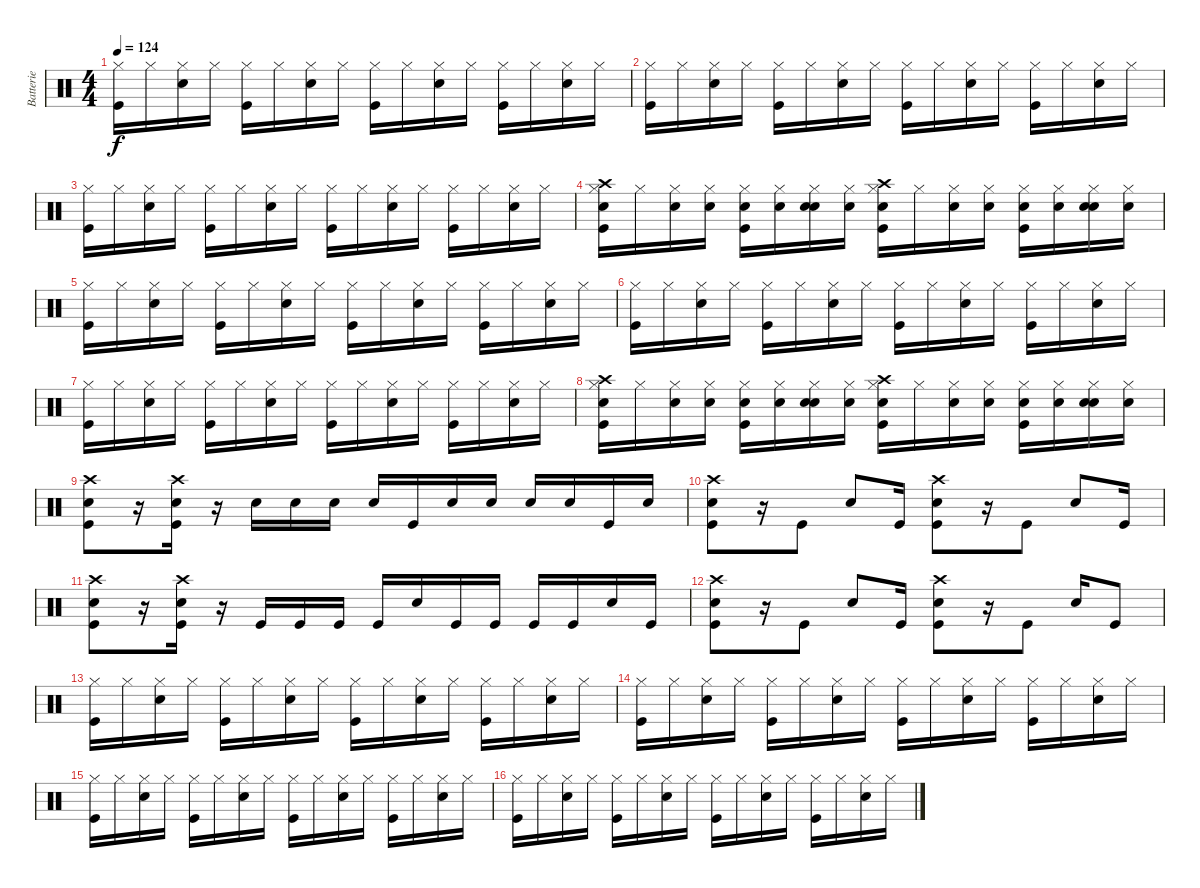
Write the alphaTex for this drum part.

\track ("Batterie" "Batterie") {instrument percussion}
\staff {score}
\articulation defaults
\ts (4 4)
\tempo 124
\clef neutral
\ks c
("Hi-Hat (closed)" "Kick (hit)").16{dy f} "Hi-Hat (closed)".16 ("Hi-Hat (closed)" "Snare (hit) 2").16 "Hi-Hat (closed)".16 ("Hi-Hat (closed)" "Kick (hit)").16 "Hi-Hat (closed)".16 ("Hi-Hat (closed)" "Snare (hit) 2").16 "Hi-Hat (closed)".16 ("Hi-Hat (closed)" "Kick (hit)").16 "Hi-Hat (closed)".16 ("Hi-Hat (closed)" "Snare (hit) 2").16 "Hi-Hat (closed)".16 ("Hi-Hat (closed)" "Kick (hit)").16 "Hi-Hat (closed)".16 ("Hi-Hat (closed)" "Snare (hit) 2").16 "Hi-Hat (closed)".16 |
("Hi-Hat (closed)" "Kick (hit)").16 "Hi-Hat (closed)".16 ("Hi-Hat (closed)" "Snare (hit) 2").16 "Hi-Hat (closed)".16 ("Hi-Hat (closed)" "Kick (hit)").16 "Hi-Hat (closed)".16 ("Hi-Hat (closed)" "Snare (hit) 2").16 "Hi-Hat (closed)".16 ("Hi-Hat (closed)" "Kick (hit)").16 "Hi-Hat (closed)".16 ("Hi-Hat (closed)" "Snare (hit) 2").16 "Hi-Hat (closed)".16 ("Hi-Hat (closed)" "Kick (hit)").16 "Hi-Hat (closed)".16 ("Hi-Hat (closed)" "Snare (hit) 2").16 "Hi-Hat (closed)".16 |
("Hi-Hat (closed)" "Kick (hit)").16 "Hi-Hat (closed)".16 ("Hi-Hat (closed)" "Snare (hit) 2").16 "Hi-Hat (closed)".16 ("Hi-Hat (closed)" "Kick (hit)").16 "Hi-Hat (closed)".16 ("Hi-Hat (closed)" "Snare (hit) 2").16 "Hi-Hat (closed)".16 ("Hi-Hat (closed)" "Kick (hit)").16 "Hi-Hat (closed)".16 ("Hi-Hat (closed)" "Snare (hit) 2").16 "Hi-Hat (closed)".16 ("Hi-Hat (closed)" "Kick (hit)").16 "Hi-Hat (closed)".16 ("Hi-Hat (closed)" "Snare (hit) 2").16 "Hi-Hat (closed)".16 |
("Hi-Hat (closed)" "Crash high (hit)" "Electric Snare (hit)" "Kick (hit)").16 "Hi-Hat (closed)".16 ("Hi-Hat (closed)" "Snare (hit) 2").16 ("Hi-Hat (closed)" "Electric Snare (hit)").16 ("Hi-Hat (closed)" "Electric Snare (hit)" "Kick (hit)").16 ("Hi-Hat (closed)" "Electric Snare (hit)").16 ("Hi-Hat (closed)" "Electric Snare (hit)" "Snare (hit) 2").16 ("Hi-Hat (closed)" "Electric Snare (hit)").16 ("Hi-Hat (closed)" "Crash high (hit)" "Electric Snare (hit)" "Kick (hit)").16 "Hi-Hat (closed)".16 ("Hi-Hat (closed)" "Snare (hit) 2").16 ("Hi-Hat (closed)" "Electric Snare (hit)").16 ("Hi-Hat (closed)" "Electric Snare (hit)" "Kick (hit)").16 ("Hi-Hat (closed)" "Electric Snare (hit)").16 ("Hi-Hat (closed)" "Electric Snare (hit)" "Snare (hit) 2").16 ("Hi-Hat (closed)" "Electric Snare (hit)").16 |
("Hi-Hat (closed)" "Kick (hit)").16 "Hi-Hat (closed)".16 ("Hi-Hat (closed)" "Snare (hit) 2").16 "Hi-Hat (closed)".16 ("Hi-Hat (closed)" "Kick (hit)").16 "Hi-Hat (closed)".16 ("Hi-Hat (closed)" "Snare (hit) 2").16 "Hi-Hat (closed)".16 ("Hi-Hat (closed)" "Kick (hit)").16 "Hi-Hat (closed)".16 ("Hi-Hat (closed)" "Snare (hit) 2").16 "Hi-Hat (closed)".16 ("Hi-Hat (closed)" "Kick (hit)").16 "Hi-Hat (closed)".16 ("Hi-Hat (closed)" "Snare (hit) 2").16 "Hi-Hat (closed)".16 |
("Hi-Hat (closed)" "Kick (hit)").16 "Hi-Hat (closed)".16 ("Hi-Hat (closed)" "Snare (hit) 2").16 "Hi-Hat (closed)".16 ("Hi-Hat (closed)" "Kick (hit)").16 "Hi-Hat (closed)".16 ("Hi-Hat (closed)" "Snare (hit) 2").16 "Hi-Hat (closed)".16 ("Hi-Hat (closed)" "Kick (hit)").16 "Hi-Hat (closed)".16 ("Hi-Hat (closed)" "Snare (hit) 2").16 "Hi-Hat (closed)".16 ("Hi-Hat (closed)" "Kick (hit)").16 "Hi-Hat (closed)".16 ("Hi-Hat (closed)" "Snare (hit) 2").16 "Hi-Hat (closed)".16 |
("Hi-Hat (closed)" "Kick (hit)").16 "Hi-Hat (closed)".16 ("Hi-Hat (closed)" "Snare (hit) 2").16 "Hi-Hat (closed)".16 ("Hi-Hat (closed)" "Kick (hit)").16 "Hi-Hat (closed)".16 ("Hi-Hat (closed)" "Snare (hit) 2").16 "Hi-Hat (closed)".16 ("Hi-Hat (closed)" "Kick (hit)").16 "Hi-Hat (closed)".16 ("Hi-Hat (closed)" "Snare (hit) 2").16 "Hi-Hat (closed)".16 ("Hi-Hat (closed)" "Kick (hit)").16 "Hi-Hat (closed)".16 ("Hi-Hat (closed)" "Snare (hit) 2").16 "Hi-Hat (closed)".16 |
("Hi-Hat (closed)" "Crash high (hit)" "Electric Snare (hit)" "Kick (hit)").16 "Hi-Hat (closed)".16 ("Hi-Hat (closed)" "Snare (hit) 2").16 ("Hi-Hat (closed)" "Electric Snare (hit)").16 ("Hi-Hat (closed)" "Electric Snare (hit)" "Kick (hit)").16 ("Hi-Hat (closed)" "Electric Snare (hit)").16 ("Hi-Hat (closed)" "Electric Snare (hit)" "Snare (hit) 2").16 ("Hi-Hat (closed)" "Electric Snare (hit)").16 ("Hi-Hat (closed)" "Crash high (hit)" "Electric Snare (hit)" "Kick (hit)").16 "Hi-Hat (closed)".16 ("Hi-Hat (closed)" "Snare (hit) 2").16 ("Hi-Hat (closed)" "Electric Snare (hit)").16 ("Hi-Hat (closed)" "Electric Snare (hit)" "Kick (hit)").16 ("Hi-Hat (closed)" "Electric Snare (hit)").16 ("Hi-Hat (closed)" "Electric Snare (hit)" "Snare (hit) 2").16 ("Hi-Hat (closed)" "Electric Snare (hit)").16 |
("Crash high (hit)" "Snare (hit) 2" "Kick (hit)").8 r.16 ("Crash high (hit)" "Snare (hit) 2" "Kick (hit)").16 r.16 "Electric Snare (hit)".16 "Electric Snare (hit)".16 "Electric Snare (hit)".16 "Electric Snare (hit)".16 "Kick (hit)".16 "Electric Snare (hit)".16 "Electric Snare (hit)".16 "Electric Snare (hit)".16 "Electric Snare (hit)".16 "Kick (hit)".16 "Electric Snare (hit)".16 |
("Crash high (hit)" "Snare (hit) 2" "Kick (hit)").8 r.16 "Kick (hit)".8 "Snare (hit) 2".8 "Kick (hit)".16 ("Crash high (hit)" "Snare (hit) 2" "Kick (hit)").8 r.16 "Kick (hit)".8 "Snare (hit) 2".8 "Kick (hit)".16 |
("Crash high (hit)" "Snare (hit) 2" "Kick (hit)").8 r.16 ("Crash high (hit)" "Snare (hit) 2" "Kick (hit)").16 r.16 "Kick (hit)".16 "Kick (hit)".16 "Kick (hit)".16 "Kick (hit)".16 "Electric Snare (hit)".16 "Kick (hit)".16 "Kick (hit)".16 "Kick (hit)".16 "Kick (hit)".16 "Electric Snare (hit)".16 "Kick (hit)".16 |
("Crash high (hit)" "Snare (hit) 2" "Kick (hit)").8 r.16 "Kick (hit)".8 "Snare (hit) 2".8 "Kick (hit)".16 ("Crash high (hit)" "Snare (hit) 2" "Kick (hit)").8 r.16 "Kick (hit)".8 "Snare (hit) 2".16 "Kick (hit)".8 |
("Hi-Hat (closed)" "Kick (hit)").16 "Hi-Hat (closed)".16 ("Hi-Hat (closed)" "Snare (hit) 2").16 "Hi-Hat (closed)".16 ("Hi-Hat (closed)" "Kick (hit)").16 "Hi-Hat (closed)".16 ("Hi-Hat (closed)" "Snare (hit) 2").16 "Hi-Hat (closed)".16 ("Hi-Hat (closed)" "Kick (hit)").16 "Hi-Hat (closed)".16 ("Hi-Hat (closed)" "Snare (hit) 2").16 "Hi-Hat (closed)".16 ("Hi-Hat (closed)" "Kick (hit)").16 "Hi-Hat (closed)".16 ("Hi-Hat (closed)" "Snare (hit) 2").16 "Hi-Hat (closed)".16 |
("Hi-Hat (closed)" "Kick (hit)").16 "Hi-Hat (closed)".16 ("Hi-Hat (closed)" "Snare (hit) 2").16 "Hi-Hat (closed)".16 ("Hi-Hat (closed)" "Kick (hit)").16 "Hi-Hat (closed)".16 ("Hi-Hat (closed)" "Snare (hit) 2").16 "Hi-Hat (closed)".16 ("Hi-Hat (closed)" "Kick (hit)").16 "Hi-Hat (closed)".16 ("Hi-Hat (closed)" "Snare (hit) 2").16 "Hi-Hat (closed)".16 ("Hi-Hat (closed)" "Kick (hit)").16 "Hi-Hat (closed)".16 ("Hi-Hat (closed)" "Snare (hit) 2").16 "Hi-Hat (closed)".16 |
("Hi-Hat (closed)" "Kick (hit)").16 "Hi-Hat (closed)".16 ("Hi-Hat (closed)" "Snare (hit) 2").16 "Hi-Hat (closed)".16 ("Hi-Hat (closed)" "Kick (hit)").16 "Hi-Hat (closed)".16 ("Hi-Hat (closed)" "Snare (hit) 2").16 "Hi-Hat (closed)".16 ("Hi-Hat (closed)" "Kick (hit)").16 "Hi-Hat (closed)".16 ("Hi-Hat (closed)" "Snare (hit) 2").16 "Hi-Hat (closed)".16 ("Hi-Hat (closed)" "Kick (hit)").16 "Hi-Hat (closed)".16 ("Hi-Hat (closed)" "Snare (hit) 2").16 "Hi-Hat (closed)".16 |
("Hi-Hat (closed)" "Kick (hit)").16 "Hi-Hat (closed)".16 ("Hi-Hat (closed)" "Snare (hit) 2").16 "Hi-Hat (closed)".16 ("Hi-Hat (closed)" "Kick (hit)").16 "Hi-Hat (closed)".16 ("Hi-Hat (closed)" "Snare (hit) 2").16 "Hi-Hat (closed)".16 ("Hi-Hat (closed)" "Kick (hit)").16 "Hi-Hat (closed)".16 ("Hi-Hat (closed)" "Snare (hit) 2").16 "Hi-Hat (closed)".16 ("Hi-Hat (closed)" "Kick (hit)").16 "Hi-Hat (closed)".16 ("Hi-Hat (closed)" "Snare (hit) 2").16 "Hi-Hat (closed)".16
